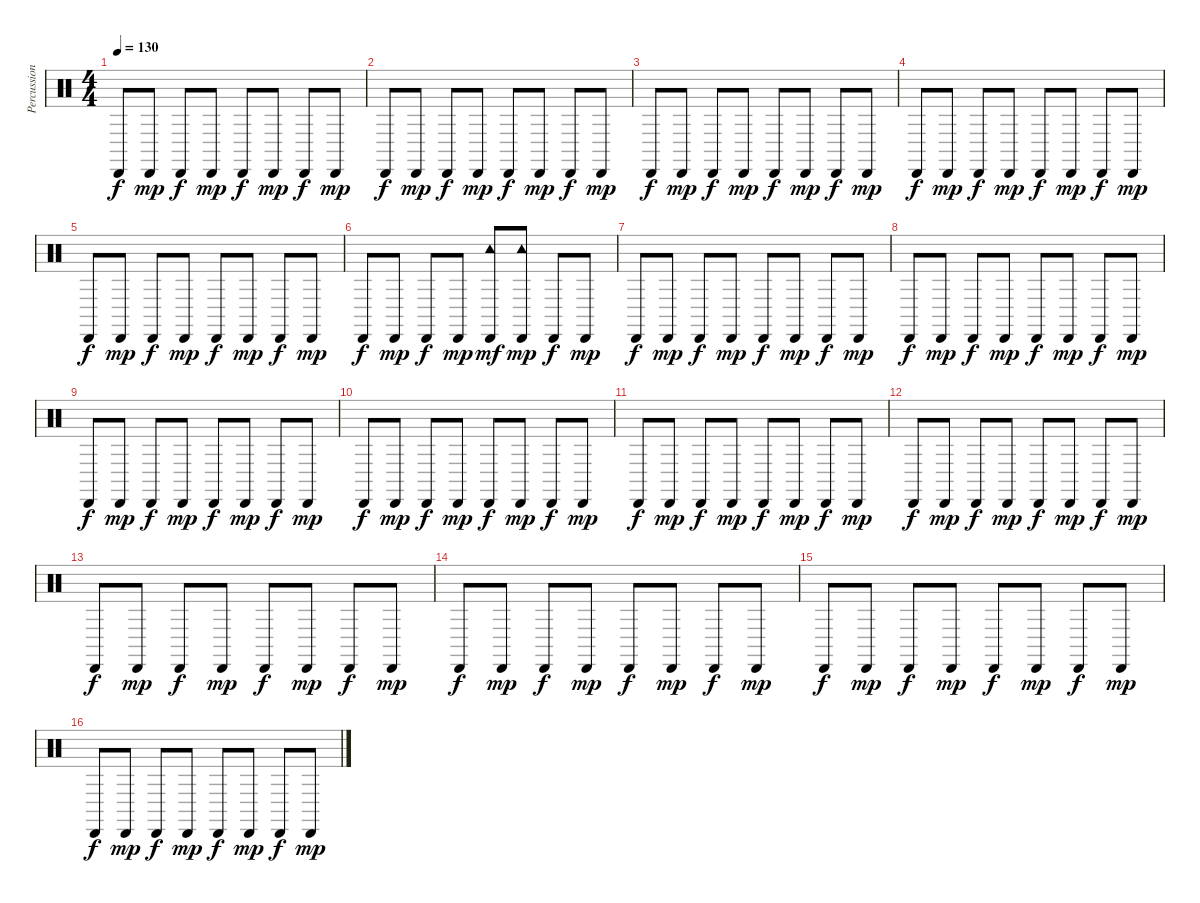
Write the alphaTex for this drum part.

\track ("Percussion" "Percussion") {instrument percussion}
\staff {score}
\articulation defaults
\ts (4 4)
\tempo 130
\clef neutral
\ks c "Cabasa (hit)".8{dy f} "Cabasa (hit)".8{dy mp} "Cabasa (hit)".8{dy f} "Cabasa (hit)".8{dy mp} "Cabasa (hit)".8{dy f} "Cabasa (hit)".8{dy mp} "Cabasa (hit)".8{dy f} "Cabasa (hit)".8{dy mp}
|
"Cabasa (hit)".8{dy f} "Cabasa (hit)".8{dy mp} "Cabasa (hit)".8{dy f} "Cabasa (hit)".8{dy mp} "Cabasa (hit)".8{dy f} "Cabasa (hit)".8{dy mp} "Cabasa (hit)".8{dy f} "Cabasa (hit)".8{dy mp} |
"Cabasa (hit)".8{dy f} "Cabasa (hit)".8{dy mp} "Cabasa (hit)".8{dy f} "Cabasa (hit)".8{dy mp} "Cabasa (hit)".8{dy f} "Cabasa (hit)".8{dy mp} "Cabasa (hit)".8{dy f} "Cabasa (hit)".8{dy mp} |
"Cabasa (hit)".8{dy f} "Cabasa (hit)".8{dy mp} "Cabasa (hit)".8{dy f} "Cabasa (hit)".8{dy mp} "Cabasa (hit)".8{dy f} "Cabasa (hit)".8{dy mp} "Cabasa (hit)".8{dy f} "Cabasa (hit)".8{dy mp} |
"Cabasa (hit)".8{dy f} "Cabasa (hit)".8{dy mp} "Cabasa (hit)".8{dy f} "Cabasa (hit)".8{dy mp} "Cabasa (hit)".8{dy f} "Cabasa (hit)".8{dy mp} "Cabasa (hit)".8{dy f} "Cabasa (hit)".8{dy mp} |
"Cabasa (hit)".8{dy f} "Cabasa (hit)".8{dy mp} "Cabasa (hit)".8{dy f} "Cabasa (hit)".8{dy mp} ("Tambourine (hit)" "Cabasa (hit)").8{dy mf} ("Tambourine (hit)" "Cabasa (hit)").8{dy mp} "Cabasa (hit)".8{dy f} "Cabasa (hit)".8{dy mp} |
"Cabasa (hit)".8{dy f} "Cabasa (hit)".8{dy mp} "Cabasa (hit)".8{dy f} "Cabasa (hit)".8{dy mp} "Cabasa (hit)".8{dy f} "Cabasa (hit)".8{dy mp} "Cabasa (hit)".8{dy f} "Cabasa (hit)".8{dy mp} |
"Cabasa (hit)".8{dy f} "Cabasa (hit)".8{dy mp} "Cabasa (hit)".8{dy f} "Cabasa (hit)".8{dy mp} "Cabasa (hit)".8{dy f} "Cabasa (hit)".8{dy mp} "Cabasa (hit)".8{dy f} "Cabasa (hit)".8{dy mp} |
"Cabasa (hit)".8{dy f} "Cabasa (hit)".8{dy mp} "Cabasa (hit)".8{dy f} "Cabasa (hit)".8{dy mp} "Cabasa (hit)".8{dy f} "Cabasa (hit)".8{dy mp} "Cabasa (hit)".8{dy f} "Cabasa (hit)".8{dy mp} |
"Cabasa (hit)".8{dy f} "Cabasa (hit)".8{dy mp} "Cabasa (hit)".8{dy f} "Cabasa (hit)".8{dy mp} "Cabasa (hit)".8{dy f} "Cabasa (hit)".8{dy mp} "Cabasa (hit)".8{dy f} "Cabasa (hit)".8{dy mp} |
"Cabasa (hit)".8{dy f} "Cabasa (hit)".8{dy mp} "Cabasa (hit)".8{dy f} "Cabasa (hit)".8{dy mp} "Cabasa (hit)".8{dy f} "Cabasa (hit)".8{dy mp} "Cabasa (hit)".8{dy f} "Cabasa (hit)".8{dy mp} |
"Cabasa (hit)".8{dy f} "Cabasa (hit)".8{dy mp} "Cabasa (hit)".8{dy f} "Cabasa (hit)".8{dy mp} "Cabasa (hit)".8{dy f} "Cabasa (hit)".8{dy mp} "Cabasa (hit)".8{dy f} "Cabasa (hit)".8{dy mp} |
"Cabasa (hit)".8{dy f} "Cabasa (hit)".8{dy mp} "Cabasa (hit)".8{dy f} "Cabasa (hit)".8{dy mp} "Cabasa (hit)".8{dy f} "Cabasa (hit)".8{dy mp} "Cabasa (hit)".8{dy f} "Cabasa (hit)".8{dy mp} |
"Cabasa (hit)".8{dy f} "Cabasa (hit)".8{dy mp} "Cabasa (hit)".8{dy f} "Cabasa (hit)".8{dy mp} "Cabasa (hit)".8{dy f} "Cabasa (hit)".8{dy mp} "Cabasa (hit)".8{dy f} "Cabasa (hit)".8{dy mp} |
"Cabasa (hit)".8{dy f} "Cabasa (hit)".8{dy mp} "Cabasa (hit)".8{dy f} "Cabasa (hit)".8{dy mp} "Cabasa (hit)".8{dy f} "Cabasa (hit)".8{dy mp} "Cabasa (hit)".8{dy f} "Cabasa (hit)".8{dy mp} |
"Cabasa (hit)".8{dy f} "Cabasa (hit)".8{dy mp} "Cabasa (hit)".8{dy f} "Cabasa (hit)".8{dy mp} "Cabasa (hit)".8{dy f} "Cabasa (hit)".8{dy mp} "Cabasa (hit)".8{dy f} "Cabasa (hit)".8{dy mp}
